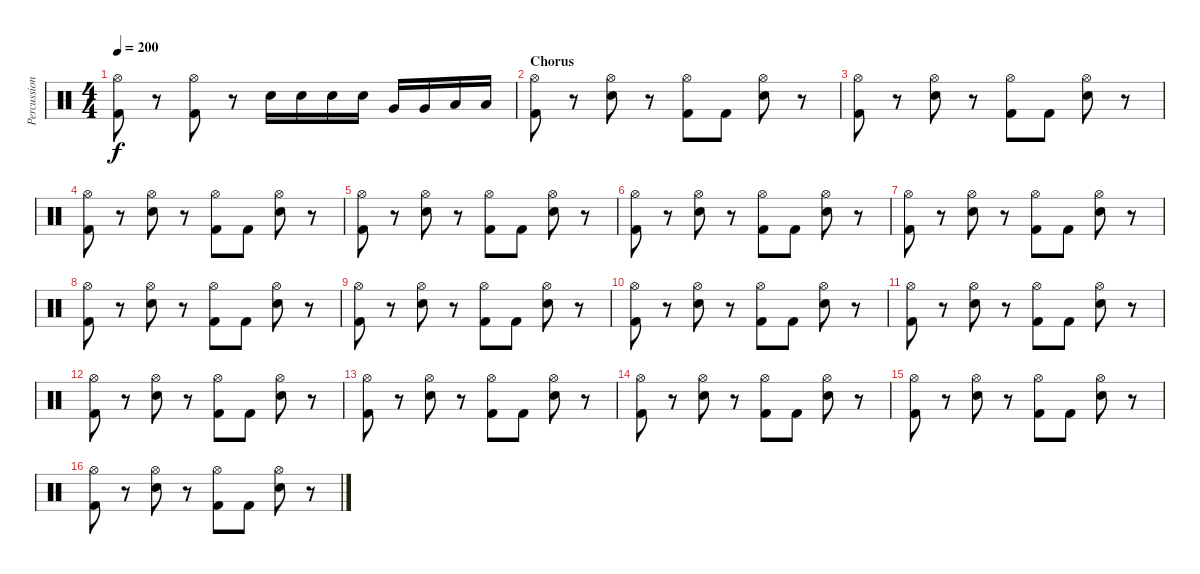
\track ("Percussion" "Percussion") {instrument percussion}
\staff {score}
\articulation defaults
\ts (4 4)
\tempo 200
\clef neutral
\ks c
("Hi-Hat (open)" "Kick (hit) 2").8{dy f} r.8 ("Hi-Hat (open)" "Kick (hit) 2").8 r.8 "Snare (hit) 2".16 "Snare (hit) 2".16 "Snare (hit) 2".16 "Snare (hit) 2".16 "Very Low Tom (hit)".16 "Very Low Tom (hit)".16 "Low Floor Tom (hit)".16 "Low Floor Tom (hit)".16 |
\section ("" "Chorus")
("Hi-Hat (open)" "Kick (hit) 2").8 r.8 ("Hi-Hat (open)" "Snare (hit) 2").8 r.8 ("Hi-Hat (open)" "Kick (hit) 2").8 "Kick (hit) 2".8 ("Hi-Hat (open)" "Snare (hit) 2").8 r.8 |
("Hi-Hat (open)" "Kick (hit) 2").8 r.8 ("Hi-Hat (open)" "Snare (hit) 2").8 r.8 ("Hi-Hat (open)" "Kick (hit) 2").8 "Kick (hit) 2".8 ("Hi-Hat (open)" "Snare (hit) 2").8 r.8 |
("Hi-Hat (open)" "Kick (hit) 2").8 r.8 ("Hi-Hat (open)" "Snare (hit) 2").8 r.8 ("Hi-Hat (open)" "Kick (hit) 2").8 "Kick (hit) 2".8 ("Hi-Hat (open)" "Snare (hit) 2").8 r.8 |
("Hi-Hat (open)" "Kick (hit) 2").8 r.8 ("Hi-Hat (open)" "Snare (hit) 2").8 r.8 ("Hi-Hat (open)" "Kick (hit) 2").8 "Kick (hit) 2".8 ("Hi-Hat (open)" "Snare (hit) 2").8 r.8 |
("Hi-Hat (open)" "Kick (hit) 2").8 r.8 ("Hi-Hat (open)" "Snare (hit) 2").8 r.8 ("Hi-Hat (open)" "Kick (hit) 2").8 "Kick (hit) 2".8 ("Hi-Hat (open)" "Snare (hit) 2").8 r.8 |
("Hi-Hat (open)" "Kick (hit) 2").8 r.8 ("Hi-Hat (open)" "Snare (hit) 2").8 r.8 ("Hi-Hat (open)" "Kick (hit) 2").8 "Kick (hit) 2".8 ("Hi-Hat (open)" "Snare (hit) 2").8 r.8 |
("Hi-Hat (open)" "Kick (hit) 2").8 r.8 ("Hi-Hat (open)" "Snare (hit) 2").8 r.8 ("Hi-Hat (open)" "Kick (hit) 2").8 "Kick (hit) 2".8 ("Hi-Hat (open)" "Snare (hit) 2").8 r.8 |
("Hi-Hat (open)" "Kick (hit) 2").8 r.8 ("Hi-Hat (open)" "Snare (hit) 2").8 r.8 ("Hi-Hat (open)" "Kick (hit) 2").8 "Kick (hit) 2".8 ("Hi-Hat (open)" "Snare (hit) 2").8 r.8 |
("Hi-Hat (open)" "Kick (hit) 2").8 r.8 ("Hi-Hat (open)" "Snare (hit) 2").8 r.8 ("Hi-Hat (open)" "Kick (hit) 2").8 "Kick (hit) 2".8 ("Hi-Hat (open)" "Snare (hit) 2").8 r.8 |
("Hi-Hat (open)" "Kick (hit) 2").8 r.8 ("Hi-Hat (open)" "Snare (hit) 2").8 r.8 ("Hi-Hat (open)" "Kick (hit) 2").8 "Kick (hit) 2".8 ("Hi-Hat (open)" "Snare (hit) 2").8 r.8 |
("Hi-Hat (open)" "Kick (hit) 2").8 r.8 ("Hi-Hat (open)" "Snare (hit) 2").8 r.8 ("Hi-Hat (open)" "Kick (hit) 2").8 "Kick (hit) 2".8 ("Hi-Hat (open)" "Snare (hit) 2").8 r.8 |
("Hi-Hat (open)" "Kick (hit) 2").8 r.8 ("Hi-Hat (open)" "Snare (hit) 2").8 r.8 ("Hi-Hat (open)" "Kick (hit) 2").8 "Kick (hit) 2".8 ("Hi-Hat (open)" "Snare (hit) 2").8 r.8 |
("Hi-Hat (open)" "Kick (hit) 2").8 r.8 ("Hi-Hat (open)" "Snare (hit) 2").8 r.8 ("Hi-Hat (open)" "Kick (hit) 2").8 "Kick (hit) 2".8 ("Hi-Hat (open)" "Snare (hit) 2").8 r.8 |
("Hi-Hat (open)" "Kick (hit) 2").8 r.8 ("Hi-Hat (open)" "Snare (hit) 2").8 r.8 ("Hi-Hat (open)" "Kick (hit) 2").8 "Kick (hit) 2".8 ("Hi-Hat (open)" "Snare (hit) 2").8 r.8 |
("Hi-Hat (open)" "Kick (hit) 2").8 r.8 ("Hi-Hat (open)" "Snare (hit) 2").8 r.8 ("Hi-Hat (open)" "Kick (hit) 2").8 "Kick (hit) 2".8 ("Hi-Hat (open)" "Snare (hit) 2").8 r.8
